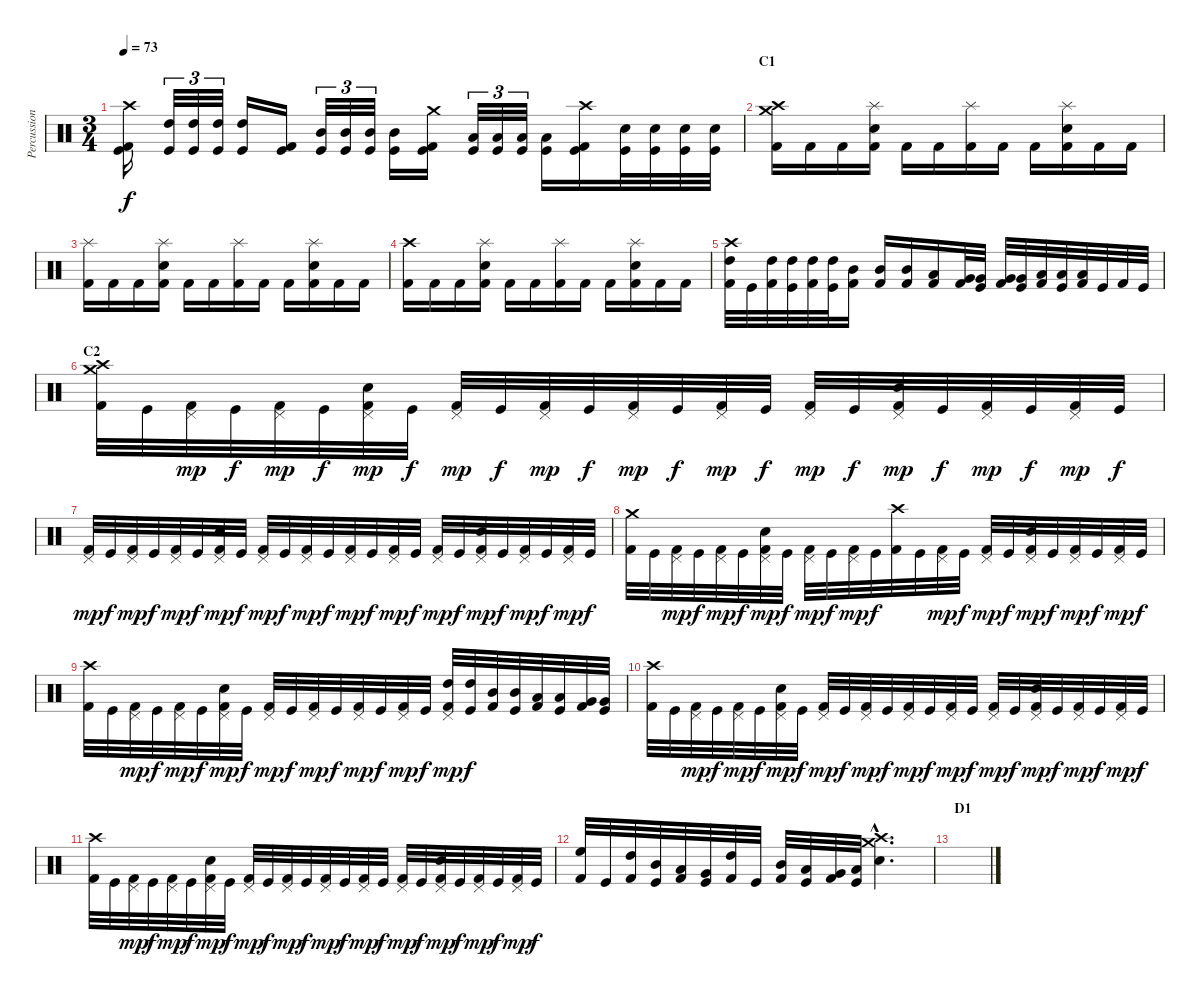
\track ("Percussion" "Percussion") {instrument percussion}
\staff {score}
\articulation defaults
\ts (3 4)
\tempo 73
\clef neutral
\ks c
("Crash high (hit)" "Kick (hit) 2" "Kick (hit)").16{dy f} ("High Tom (hit)" "Kick (hit)").32{tu (3 2)} ("High Tom (hit)" "Kick (hit)").32{tu (3 2)} ("High Tom (hit)" "Kick (hit)").32{tu (3 2)} ("High Tom (hit)" "Kick (hit)").16 ("Kick (hit) 2" "Kick (hit)").16 ("Mid Tom (hit)" "Kick (hit)").32{tu (3 2)} ("Mid Tom (hit)" "Kick (hit)").32{tu (3 2)} ("Mid Tom (hit)" "Kick (hit)").32{tu (3 2)} ("Mid Tom (hit)" "Kick (hit)").16 ("Crash medium (hit)" "Kick (hit) 2" "Kick (hit)").16 ("Low Tom (hit)" "Kick (hit)").32{tu (3 2)} ("Low Tom (hit)" "Kick (hit)").32{tu (3 2)} ("Low Tom (hit)" "Kick (hit)").32{tu (3 2)} ("Low Tom (hit)" "Kick (hit)").16 ("Crash high (hit)" "Kick (hit) 2" "Kick (hit)").16 ("Electric Snare (hit)" "Kick (hit)").32 ("Electric Snare (hit)" "Kick (hit)").32 ("Electric Snare (hit)" "Kick (hit)").32 ("Electric Snare (hit)" "Kick (hit)").32 |
\section ("" "C1")
("Crash medium (hit)" "Crash high (hit)" "Kick (hit) 2").16 "Kick (hit) 2".16 "Kick (hit) 2".16 ("Electric Snare (hit)" "Splash (hit)" "Kick (hit) 2").16 "Kick (hit) 2".16 "Kick (hit) 2".16 ("Splash (hit)" "Kick (hit) 2").16 "Kick (hit) 2".16 "Kick (hit) 2".16 ("Electric Snare (hit)" "Splash (hit)" "Kick (hit) 2").16 "Kick (hit) 2".16 "Kick (hit) 2".16 |
("Splash (hit)" "Kick (hit) 2").16 "Kick (hit) 2".16 "Kick (hit) 2".16 ("Electric Snare (hit)" "Splash (hit)" "Kick (hit) 2").16 "Kick (hit) 2".16 "Kick (hit) 2".16 ("Splash (hit)" "Kick (hit) 2").16 "Kick (hit) 2".16 "Kick (hit) 2".16 ("Electric Snare (hit)" "Splash (hit)" "Kick (hit) 2").16 "Kick (hit) 2".16 "Kick (hit) 2".16 |
("Crash high (hit)" "Kick (hit) 2").16 "Kick (hit) 2".16 "Kick (hit) 2".16 ("Electric Snare (hit)" "Splash (hit)" "Kick (hit) 2").16 "Kick (hit) 2".16 "Kick (hit) 2".16 ("Splash (hit)" "Kick (hit) 2").16 "Kick (hit) 2".16 "Kick (hit) 2".16 ("Electric Snare (hit)" "Splash (hit)" "Kick (hit) 2").16 "Kick (hit) 2".16 "Kick (hit) 2".16 |
("Crash high (hit)" "High Tom (hit)" "Kick (hit) 2").32 "Kick (hit)".32 ("High Tom (hit)" "Kick (hit) 2").32 ("High Tom (hit)" "Kick (hit)").32 ("High Tom (hit)" "Kick (hit) 2").32 ("High Tom (hit)" "Kick (hit)").32 ("Mid Tom (hit)" "Kick (hit) 2").16 ("Mid Tom (hit)" "Kick (hit) 2").16 ("Mid Tom (hit)" "Kick (hit) 2").16 ("Low Tom (hit)" "Kick (hit) 2").16 ("Very Low Tom (hit)" "Kick (hit) 2").32 ("Very Low Tom (hit)" "Kick (hit)").32 ("Very Low Tom (hit)" "Kick (hit) 2").32 ("Very Low Tom (hit)" "Kick (hit)").32 ("Low Floor Tom (hit)" "Kick (hit) 2").32 ("Low Floor Tom (hit)" "Kick (hit)").32 ("Low Floor Tom (hit)" "Kick (hit) 2").32 "Kick (hit)".32 "Kick (hit) 2".32 "Kick (hit)".32 |
\section ("" "C2")
("Crash medium (hit)" "Crash high (hit)" "Kick (hit) 2").32 "Kick (hit)".32 ("Pedal Hi-Hat (hit)" "Kick (hit) 2").32{dy mp} "Kick (hit)".32{dy f} ("Pedal Hi-Hat (hit)" "Kick (hit) 2").32{dy mp} "Kick (hit)".32{dy f} ("Pedal Hi-Hat (hit)" "Electric Snare (hit)" "Kick (hit) 2").32{dy mp} "Kick (hit)".32{dy f} ("Pedal Hi-Hat (hit)" "Kick (hit) 2").32{dy mp} "Kick (hit)".32{dy f} ("Pedal Hi-Hat (hit)" "Kick (hit) 2").32{dy mp} "Kick (hit)".32{dy f} ("Pedal Hi-Hat (hit)" "Kick (hit) 2").32{dy mp} "Kick (hit)".32{dy f} ("Pedal Hi-Hat (hit)" "Kick (hit) 2").32{dy mp} "Kick (hit)".32{dy f} ("Pedal Hi-Hat (hit)" "Kick (hit) 2").32{dy mp} "Kick (hit)".32{dy f} ("Pedal Hi-Hat (hit)" "Electric Snare (hit)" "Kick (hit) 2").32{dy mp} "Kick (hit)".32{dy f} ("Pedal Hi-Hat (hit)" "Kick (hit) 2").32{dy mp} "Kick (hit)".32{dy f} ("Pedal Hi-Hat (hit)" "Kick (hit) 2").32{dy mp} "Kick (hit)".32{dy f} |
("Pedal Hi-Hat (hit)" "Kick (hit) 2").32{dy mp} "Kick (hit)".32{dy f} ("Pedal Hi-Hat (hit)" "Kick (hit) 2").32{dy mp} "Kick (hit)".32{dy f} ("Pedal Hi-Hat (hit)" "Kick (hit) 2").32{dy mp} "Kick (hit)".32{dy f} ("Pedal Hi-Hat (hit)" "Electric Snare (hit)" "Kick (hit) 2").32{dy mp} "Kick (hit)".32{dy f} ("Pedal Hi-Hat (hit)" "Kick (hit) 2").32{dy mp} "Kick (hit)".32{dy f} ("Pedal Hi-Hat (hit)" "Kick (hit) 2").32{dy mp} "Kick (hit)".32{dy f} ("Pedal Hi-Hat (hit)" "Kick (hit) 2").32{dy mp} "Kick (hit)".32{dy f} ("Pedal Hi-Hat (hit)" "Kick (hit) 2").32{dy mp} "Kick (hit)".32{dy f} ("Pedal Hi-Hat (hit)" "Kick (hit) 2").32{dy mp} "Kick (hit)".32{dy f} ("Pedal Hi-Hat (hit)" "Electric Snare (hit)" "Kick (hit) 2").32{dy mp} "Kick (hit)".32{dy f} ("Pedal Hi-Hat (hit)" "Kick (hit) 2").32{dy mp} "Kick (hit)".32{dy f} ("Pedal Hi-Hat (hit)" "Kick (hit) 2").32{dy mp} "Kick (hit)".32{dy f} |
("Crash medium (hit)" "Kick (hit) 2").32 "Kick (hit)".32 ("Pedal Hi-Hat (hit)" "Kick (hit) 2").32{dy mp} "Kick (hit)".32{dy f} ("Pedal Hi-Hat (hit)" "Kick (hit) 2").32{dy mp} "Kick (hit)".32{dy f} ("Pedal Hi-Hat (hit)" "Electric Snare (hit)" "Kick (hit) 2").32{dy mp} "Kick (hit)".32{dy f} ("Pedal Hi-Hat (hit)" "Kick (hit) 2").32{dy mp} "Kick (hit)".32{dy f} ("Pedal Hi-Hat (hit)" "Kick (hit) 2").32{dy mp} "Kick (hit)".32{dy f} ("Crash high (hit)" "Kick (hit) 2").32 "Kick (hit)".32 ("Pedal Hi-Hat (hit)" "Kick (hit) 2").32{dy mp} "Kick (hit)".32{dy f} ("Pedal Hi-Hat (hit)" "Kick (hit) 2").32{dy mp} "Kick (hit)".32{dy f} ("Pedal Hi-Hat (hit)" "Electric Snare (hit)" "Kick (hit) 2").32{dy mp} "Kick (hit)".32{dy f} ("Pedal Hi-Hat (hit)" "Kick (hit) 2").32{dy mp} "Kick (hit)".32{dy f} ("Pedal Hi-Hat (hit)" "Kick (hit) 2").32{dy mp} "Kick (hit)".32{dy f} |
("Crash high (hit)" "Kick (hit) 2").32 "Kick (hit)".32 ("Pedal Hi-Hat (hit)" "Kick (hit) 2").32{dy mp} "Kick (hit)".32{dy f} ("Pedal Hi-Hat (hit)" "Kick (hit) 2").32{dy mp} "Kick (hit)".32{dy f} ("Pedal Hi-Hat (hit)" "Electric Snare (hit)" "Kick (hit) 2").32{dy mp} "Kick (hit)".32{dy f} ("Pedal Hi-Hat (hit)" "Kick (hit) 2").32{dy mp} "Kick (hit)".32{dy f} ("Pedal Hi-Hat (hit)" "Kick (hit) 2").32{dy mp} "Kick (hit)".32{dy f} ("Pedal Hi-Hat (hit)" "Kick (hit) 2").32{dy mp} "Kick (hit)".32{dy f} ("Pedal Hi-Hat (hit)" "Kick (hit) 2").32{dy mp} "Kick (hit)".32{dy f} ("Pedal Hi-Hat (hit)" "High Tom (hit)" "Kick (hit) 2").32{dy mp} ("High Tom (hit)" "Kick (hit)").32{dy f} ("Mid Tom (hit)" "Kick (hit) 2").32 ("Mid Tom (hit)" "Kick (hit)").32 ("Low Tom (hit)" "Kick (hit) 2").32 ("Low Tom (hit)" "Kick (hit)").32 ("Very Low Tom (hit)" "Kick (hit) 2").32 ("Very Low Tom (hit)" "Kick (hit)").32 |
("Crash high (hit)" "Kick (hit) 2").32 "Kick (hit)".32 ("Pedal Hi-Hat (hit)" "Kick (hit) 2").32{dy mp} "Kick (hit)".32{dy f} ("Pedal Hi-Hat (hit)" "Kick (hit) 2").32{dy mp} "Kick (hit)".32{dy f} ("Pedal Hi-Hat (hit)" "Electric Snare (hit)" "Kick (hit) 2").32{dy mp} "Kick (hit)".32{dy f} ("Pedal Hi-Hat (hit)" "Kick (hit) 2").32{dy mp} "Kick (hit)".32{dy f} ("Pedal Hi-Hat (hit)" "Kick (hit) 2").32{dy mp} "Kick (hit)".32{dy f} ("Pedal Hi-Hat (hit)" "Kick (hit) 2").32{dy mp} "Kick (hit)".32{dy f} ("Pedal Hi-Hat (hit)" "Kick (hit) 2").32{dy mp} "Kick (hit)".32{dy f} ("Pedal Hi-Hat (hit)" "Kick (hit) 2").32{dy mp} "Kick (hit)".32{dy f} ("Pedal Hi-Hat (hit)" "Electric Snare (hit)" "Kick (hit) 2").32{dy mp} "Kick (hit)".32{dy f} ("Pedal Hi-Hat (hit)" "Kick (hit) 2").32{dy mp} "Kick (hit)".32{dy f} ("Pedal Hi-Hat (hit)" "Kick (hit) 2").32{dy mp} "Kick (hit)".32{dy f} |
("Crash high (hit)" "Kick (hit) 2").32 "Kick (hit)".32 ("Pedal Hi-Hat (hit)" "Kick (hit) 2").32{dy mp} "Kick (hit)".32{dy f} ("Pedal Hi-Hat (hit)" "Kick (hit) 2").32{dy mp} "Kick (hit)".32{dy f} ("Pedal Hi-Hat (hit)" "Electric Snare (hit)" "Kick (hit) 2").32{dy mp} "Kick (hit)".32{dy f} ("Pedal Hi-Hat (hit)" "Kick (hit) 2").32{dy mp} "Kick (hit)".32{dy f} ("Pedal Hi-Hat (hit)" "Kick (hit) 2").32{dy mp} "Kick (hit)".32{dy f} ("Pedal Hi-Hat (hit)" "Kick (hit) 2").32{dy mp} "Kick (hit)".32{dy f} ("Pedal Hi-Hat (hit)" "Kick (hit) 2").32{dy mp} "Kick (hit)".32{dy f} ("Pedal Hi-Hat (hit)" "Kick (hit) 2").32{dy mp} "Kick (hit)".32{dy f} ("Pedal Hi-Hat (hit)" "Electric Snare (hit)" "Kick (hit) 2").32{dy mp} "Kick (hit)".32{dy f} ("Pedal Hi-Hat (hit)" "Kick (hit) 2").32{dy mp} "Kick (hit)".32{dy f} ("Pedal Hi-Hat (hit)" "Kick (hit) 2").32{dy mp} "Kick (hit)".32{dy f} |
("High Floor Tom (hit)" "Kick (hit) 2").32 "Kick (hit)".32 ("High Tom (hit)" "Kick (hit) 2").32 ("Mid Tom (hit)" "Kick (hit)").32 ("Low Tom (hit)" "Kick (hit) 2").32 ("Very Low Tom (hit)" "Kick (hit)").32 ("High Tom (hit)" "Kick (hit) 2").32 "Kick (hit)".32 ("Mid Tom (hit)" "Kick (hit) 2").32 ("Low Tom (hit)" "Kick (hit)").32 ("Very Low Tom (hit)" "Kick (hit) 2").32 ("Low Floor Tom (hit)" "Kick (hit)").32 ("Crash medium (hit)"{hac} "Crash high (hit)"{hac} "Electric Snare (hit)"{hac}).4{d} |
\section ("" "D1")
